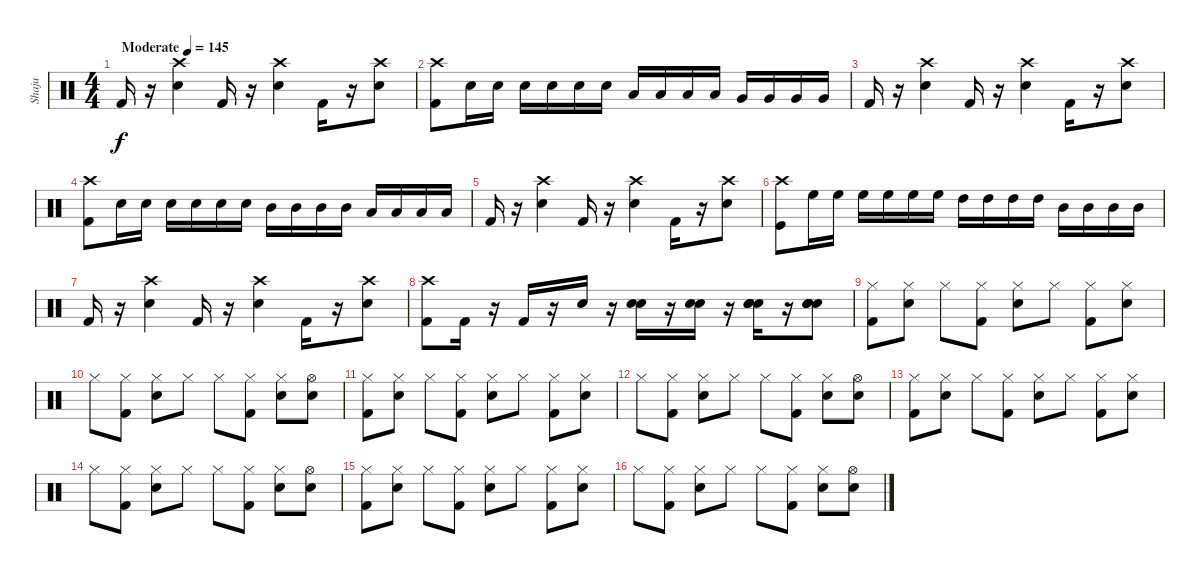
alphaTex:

\track ("Shaju" "Shaju") {instrument percussion}
\staff {score}
\articulation defaults
\ts (4 4)
\tempo (145 "Moderate")
\clef neutral
\ks c "Kick (hit) 2".16{dy f}
r.16 ("Crash high (hit)" "Electric Snare (hit)").4 "Kick (hit) 2".16 r.16 ("Crash high (hit)" "Electric Snare (hit)").4 "Kick (hit) 2".16 r.16 ("Electric Snare (hit)" "Crash high (hit)").8 |
("Crash high (hit)" "Kick (hit) 2").8 "Electric Snare (hit)".16 "Electric Snare (hit)".16 "Electric Snare (hit)".16 "Electric Snare (hit)".16 "Electric Snare (hit)".16 "Electric Snare (hit)".16 "Low Tom (hit)".16 "Low Tom (hit)".16 "Low Tom (hit)".16 "Low Tom (hit)".16 "Very Low Tom (hit)".16 "Very Low Tom (hit)".16 "Very Low Tom (hit)".16 "Very Low Tom (hit)".16 |
"Kick (hit) 2".16 r.16 ("Crash high (hit)" "Electric Snare (hit)").4 "Kick (hit) 2".16 r.16 ("Crash high (hit)" "Electric Snare (hit)").4 "Kick (hit) 2".16 r.16 ("Electric Snare (hit)" "Crash high (hit)").8 |
("Crash high (hit)" "Kick (hit) 2").8 "Electric Snare (hit)".16 "Electric Snare (hit)".16 "Electric Snare (hit)".16 "Electric Snare (hit)".16 "Electric Snare (hit)".16 "Electric Snare (hit)".16 "Mid Tom (hit)".16 "Mid Tom (hit)".16 "Mid Tom (hit)".16 "Mid Tom (hit)".16 "Low Tom (hit)".16 "Low Tom (hit)".16 "Low Tom (hit)".16 "Low Tom (hit)".16 |
"Kick (hit) 2".16 r.16 ("Crash high (hit)" "Electric Snare (hit)").4 "Kick (hit) 2".16 r.16 ("Crash high (hit)" "Electric Snare (hit)").4 "Kick (hit) 2".16 r.16 ("Electric Snare (hit)" "Crash high (hit)").8 |
("Crash high (hit)" "Kick (hit)").8 "High Floor Tom (hit)".16 "High Floor Tom (hit)".16 "High Floor Tom (hit)".16 "High Floor Tom (hit)".16 "High Floor Tom (hit)".16 "High Floor Tom (hit)".16 "High Tom (hit)".16 "High Tom (hit)".16 "High Tom (hit)".16 "High Tom (hit)".16 "Mid Tom (hit)".16 "Mid Tom (hit)".16 "Mid Tom (hit)".16 "Mid Tom (hit)".16 |
"Kick (hit) 2".16 r.16 ("Crash high (hit)" "Electric Snare (hit)").4 "Kick (hit) 2".16 r.16 ("Crash high (hit)" "Electric Snare (hit)").4 "Kick (hit) 2".16 r.16 ("Electric Snare (hit)" "Crash high (hit)").8 |
("Crash high (hit)" "Kick (hit) 2").8 "Kick (hit) 2".16 r.16 "Kick (hit) 2".16 r.16 "Electric Snare (hit)".16 r.16 ("Electric Snare (hit)" "Electric Snare (hit)").16 r.16 ("Electric Snare (hit)" "Electric Snare (hit)").16 r.16 ("Electric Snare (hit)" "Electric Snare (hit)" "Electric Snare (hit)" "Electric Snare (hit)").16 r.16 ("Electric Snare (hit)" "Electric Snare (hit)" "Electric Snare (hit)" "Electric Snare (hit)").8 |
("Kick (hit) 2" "Hi-Hat (closed)").8 ("Electric Snare (hit)" "Hi-Hat (closed)").8 "Hi-Hat (closed)".8 ("Kick (hit) 2" "Hi-Hat (closed)").8 ("Electric Snare (hit)" "Hi-Hat (closed)").8 "Hi-Hat (closed)".8 ("Kick (hit) 2" "Hi-Hat (closed)").8 ("Electric Snare (hit)" "Hi-Hat (closed)").8 |
"Hi-Hat (closed)".8 ("Kick (hit) 2" "Hi-Hat (closed)").8 ("Electric Snare (hit)" "Hi-Hat (closed)").8 "Hi-Hat (closed)".8 "Hi-Hat (closed)".8 ("Kick (hit) 2" "Hi-Hat (closed)").8 ("Electric Snare (hit)" "Hi-Hat (closed)").8 ("Electric Snare (hit)" "Hi-Hat (open)").8 |
("Kick (hit) 2" "Hi-Hat (closed)").8 ("Electric Snare (hit)" "Hi-Hat (closed)").8 "Hi-Hat (closed)".8 ("Kick (hit) 2" "Hi-Hat (closed)").8 ("Electric Snare (hit)" "Hi-Hat (closed)").8 "Hi-Hat (closed)".8 ("Kick (hit) 2" "Hi-Hat (closed)").8 ("Electric Snare (hit)" "Hi-Hat (closed)").8 |
"Hi-Hat (closed)".8 ("Kick (hit) 2" "Hi-Hat (closed)").8 ("Electric Snare (hit)" "Hi-Hat (closed)").8 "Hi-Hat (closed)".8 "Hi-Hat (closed)".8 ("Kick (hit) 2" "Hi-Hat (closed)").8 ("Electric Snare (hit)" "Hi-Hat (closed)").8 ("Electric Snare (hit)" "Hi-Hat (open)").8 |
("Kick (hit) 2" "Hi-Hat (closed)").8 ("Electric Snare (hit)" "Hi-Hat (closed)").8 "Hi-Hat (closed)".8 ("Kick (hit) 2" "Hi-Hat (closed)").8 ("Electric Snare (hit)" "Hi-Hat (closed)").8 "Hi-Hat (closed)".8 ("Kick (hit) 2" "Hi-Hat (closed)").8 ("Electric Snare (hit)" "Hi-Hat (closed)").8 |
"Hi-Hat (closed)".8 ("Kick (hit) 2" "Hi-Hat (closed)").8 ("Electric Snare (hit)" "Hi-Hat (closed)").8 "Hi-Hat (closed)".8 "Hi-Hat (closed)".8 ("Kick (hit) 2" "Hi-Hat (closed)").8 ("Electric Snare (hit)" "Hi-Hat (closed)").8 ("Electric Snare (hit)" "Hi-Hat (open)").8 |
("Kick (hit) 2" "Hi-Hat (closed)").8 ("Electric Snare (hit)" "Hi-Hat (closed)").8 "Hi-Hat (closed)".8 ("Kick (hit) 2" "Hi-Hat (closed)").8 ("Electric Snare (hit)" "Hi-Hat (closed)").8 "Hi-Hat (closed)".8 ("Kick (hit) 2" "Hi-Hat (closed)").8 ("Electric Snare (hit)" "Hi-Hat (closed)").8 |
"Hi-Hat (closed)".8 ("Kick (hit) 2" "Hi-Hat (closed)").8 ("Electric Snare (hit)" "Hi-Hat (closed)").8 "Hi-Hat (closed)".8 "Hi-Hat (closed)".8 ("Kick (hit) 2" "Hi-Hat (closed)").8 ("Electric Snare (hit)" "Hi-Hat (closed)").8 ("Electric Snare (hit)" "Hi-Hat (open)").8
